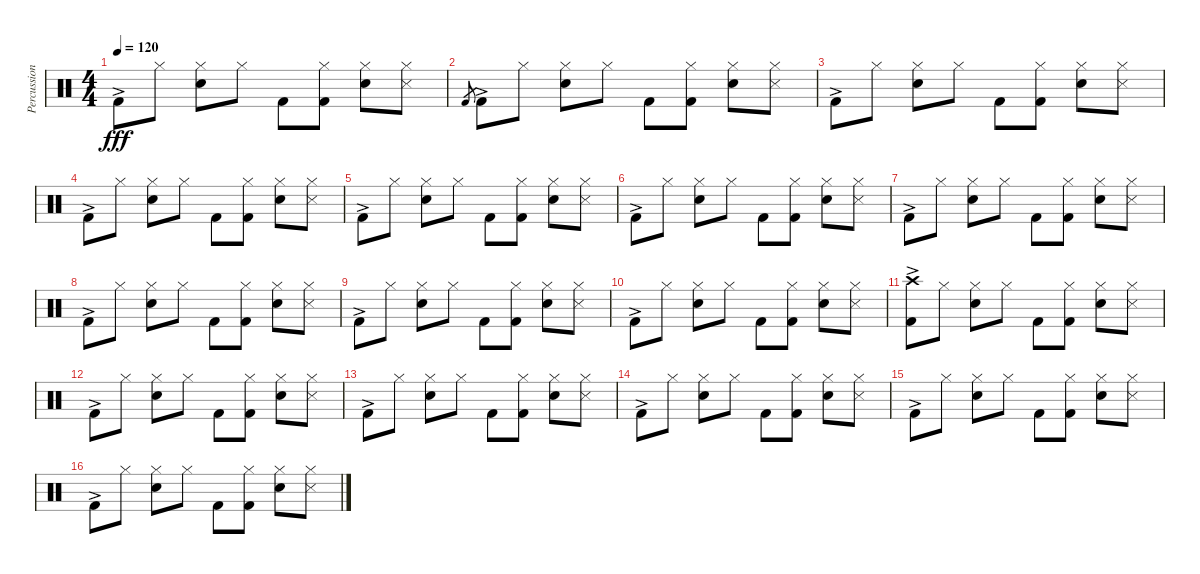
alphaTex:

\track ("Percussion" "Percussion") {instrument percussion}
\staff {score}
\articulation defaults
\ts (4 4)
\tempo 120
\clef neutral
\ks c "Kick (hit) 2"{ac}.8{dy fff} "Hi-Hat (closed)".8
("Hi-Hat (closed)" "Snare (hit) 2").8 "Hi-Hat (closed)".8 "Kick (hit) 2".8 ("Hi-Hat (closed)" "Kick (hit) 2").8 ("Hi-Hat (closed)" "Snare (hit) 2").8 ("Hi-Hat (closed)" "Snare (side stick) 3").8 |
"Kick (hit) 2".8{gr} "Kick (hit) 2"{ac}.8 "Hi-Hat (closed)".8 ("Hi-Hat (closed)" "Snare (hit) 2").8 "Hi-Hat (closed)".8 "Kick (hit) 2".8 ("Hi-Hat (closed)" "Kick (hit) 2").8 ("Hi-Hat (closed)" "Snare (hit) 2").8 ("Hi-Hat (closed)" "Snare (side stick) 3").8 |
"Kick (hit) 2"{ac}.8 "Hi-Hat (closed)".8 ("Hi-Hat (closed)" "Snare (hit) 2").8 "Hi-Hat (closed)".8 "Kick (hit) 2".8 ("Hi-Hat (closed)" "Kick (hit) 2").8 ("Hi-Hat (closed)" "Snare (hit) 2").8 ("Hi-Hat (closed)" "Snare (side stick) 3").8 |
"Kick (hit) 2"{ac}.8 "Hi-Hat (closed)".8 ("Hi-Hat (closed)" "Snare (hit) 2").8 "Hi-Hat (closed)".8 "Kick (hit) 2".8 ("Hi-Hat (closed)" "Kick (hit) 2").8 ("Hi-Hat (closed)" "Snare (hit) 2").8 ("Hi-Hat (closed)" "Snare (side stick) 3").8 |
"Kick (hit) 2"{ac}.8 "Hi-Hat (closed)".8 ("Hi-Hat (closed)" "Snare (hit) 2").8 "Hi-Hat (closed)".8 "Kick (hit) 2".8 ("Hi-Hat (closed)" "Kick (hit) 2").8 ("Hi-Hat (closed)" "Snare (hit) 2").8 ("Hi-Hat (closed)" "Snare (side stick) 3").8 |
"Kick (hit) 2"{ac}.8 "Hi-Hat (closed)".8 ("Hi-Hat (closed)" "Snare (hit) 2").8 "Hi-Hat (closed)".8 "Kick (hit) 2".8 ("Hi-Hat (closed)" "Kick (hit) 2").8 ("Hi-Hat (closed)" "Snare (hit) 2").8 ("Hi-Hat (closed)" "Snare (side stick) 3").8 |
"Kick (hit) 2"{ac}.8 "Hi-Hat (closed)".8 ("Hi-Hat (closed)" "Snare (hit) 2").8 "Hi-Hat (closed)".8 "Kick (hit) 2".8 ("Hi-Hat (closed)" "Kick (hit) 2").8 ("Hi-Hat (closed)" "Snare (hit) 2").8 ("Hi-Hat (closed)" "Snare (side stick) 3").8 |
"Kick (hit) 2"{ac}.8 "Hi-Hat (closed)".8 ("Hi-Hat (closed)" "Snare (hit) 2").8 "Hi-Hat (closed)".8 "Kick (hit) 2".8 ("Hi-Hat (closed)" "Kick (hit) 2").8 ("Hi-Hat (closed)" "Snare (hit) 2").8 ("Hi-Hat (closed)" "Snare (side stick) 3").8 |
"Kick (hit) 2"{ac}.8 "Hi-Hat (closed)".8 ("Hi-Hat (closed)" "Snare (hit) 2").8 "Hi-Hat (closed)".8 "Kick (hit) 2".8 ("Hi-Hat (closed)" "Kick (hit) 2").8 ("Hi-Hat (closed)" "Snare (hit) 2").8 ("Hi-Hat (closed)" "Snare (side stick) 3").8 |
"Kick (hit) 2"{ac}.8 "Hi-Hat (closed)".8 ("Hi-Hat (closed)" "Snare (hit) 2").8 "Hi-Hat (closed)".8 "Kick (hit) 2".8 ("Hi-Hat (closed)" "Kick (hit) 2").8 ("Hi-Hat (closed)" "Snare (hit) 2").8 ("Hi-Hat (closed)" "Snare (side stick) 3").8 |
("Crash high (hit)" "Kick (hit) 2"{ac}).8 "Hi-Hat (closed)".8 ("Hi-Hat (closed)" "Snare (hit) 2").8 "Hi-Hat (closed)".8 "Kick (hit) 2".8 ("Hi-Hat (closed)" "Kick (hit) 2").8 ("Hi-Hat (closed)" "Snare (hit) 2").8 ("Hi-Hat (closed)" "Snare (side stick) 3").8 |
"Kick (hit) 2"{ac}.8 "Hi-Hat (closed)".8 ("Hi-Hat (closed)" "Snare (hit) 2").8 "Hi-Hat (closed)".8 "Kick (hit) 2".8 ("Hi-Hat (closed)" "Kick (hit) 2").8 ("Hi-Hat (closed)" "Snare (hit) 2").8 ("Hi-Hat (closed)" "Snare (side stick) 3").8 |
"Kick (hit) 2"{ac}.8 "Hi-Hat (closed)".8 ("Hi-Hat (closed)" "Snare (hit) 2").8 "Hi-Hat (closed)".8 "Kick (hit) 2".8 ("Hi-Hat (closed)" "Kick (hit) 2").8 ("Hi-Hat (closed)" "Snare (hit) 2").8 ("Hi-Hat (closed)" "Snare (side stick) 3").8 |
"Kick (hit) 2"{ac}.8 "Hi-Hat (closed)".8 ("Hi-Hat (closed)" "Snare (hit) 2").8 "Hi-Hat (closed)".8 "Kick (hit) 2".8 ("Hi-Hat (closed)" "Kick (hit) 2").8 ("Hi-Hat (closed)" "Snare (hit) 2").8 ("Hi-Hat (closed)" "Snare (side stick) 3").8 |
"Kick (hit) 2"{ac}.8 "Hi-Hat (closed)".8 ("Hi-Hat (closed)" "Snare (hit) 2").8 "Hi-Hat (closed)".8 "Kick (hit) 2".8 ("Hi-Hat (closed)" "Kick (hit) 2").8 ("Hi-Hat (closed)" "Snare (hit) 2").8 ("Hi-Hat (closed)" "Snare (side stick) 3").8 |
"Kick (hit) 2"{ac}.8 "Hi-Hat (closed)".8 ("Hi-Hat (closed)" "Snare (hit) 2").8 "Hi-Hat (closed)".8 "Kick (hit) 2".8 ("Hi-Hat (closed)" "Kick (hit) 2").8 ("Hi-Hat (closed)" "Snare (hit) 2").8 ("Hi-Hat (closed)" "Snare (side stick) 3").8
